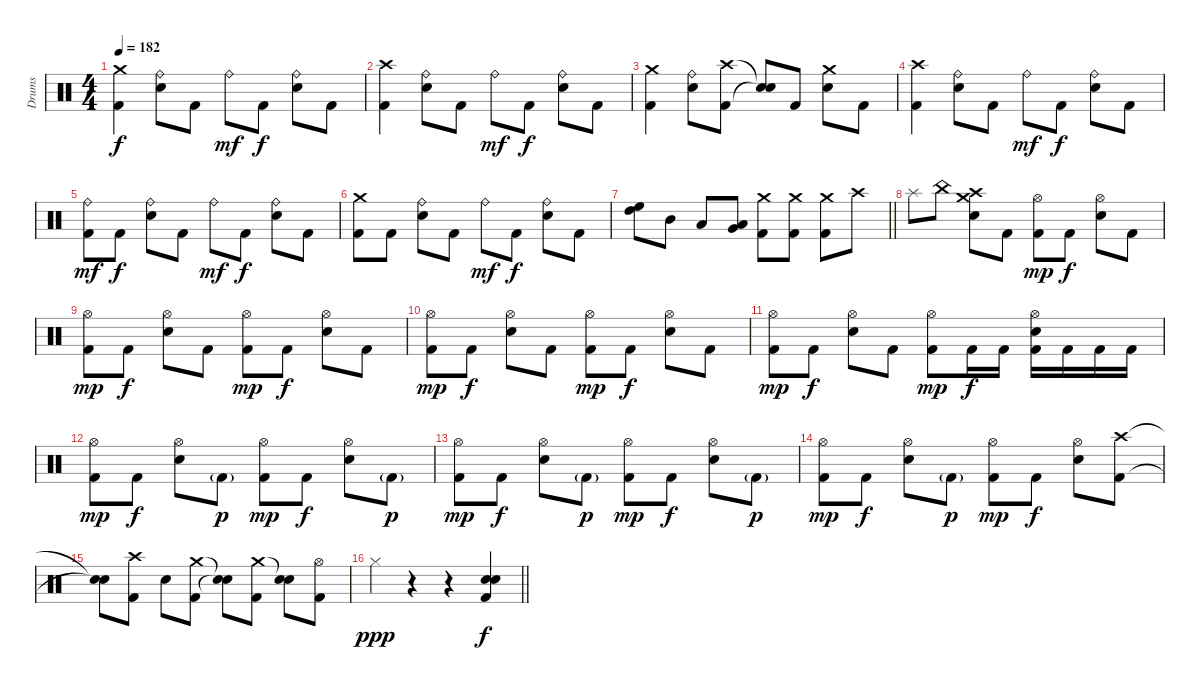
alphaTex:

\track ("Drums" "Drums") {instrument percussion}
\staff {score}
\articulation defaults
\ts (4 4)
\tempo 182
\clef neutral
\ks c
("Crash medium (hit)" "Kick (hit) 2").4{dy f} ("Ride (bell)" "Electric Snare (hit)").8 "Kick (hit) 2".8 "Ride (bell)".8{dy mf} "Kick (hit) 2".8{dy f} ("Ride (bell)" "Electric Snare (hit)").8 "Kick (hit) 2".8 |
("Crash high (hit)" "Kick (hit) 2").4 ("Ride (bell)" "Electric Snare (hit)").8 "Kick (hit) 2".8 "Ride (bell)".8{dy mf} "Kick (hit) 2".8{dy f} ("Ride (bell)" "Electric Snare (hit)").8 "Kick (hit) 2".8 |
("Crash medium (hit)" "Kick (hit) 2").4 ("Ride (bell)" "Electric Snare (hit)").8 ("Crash high (hit)" "Kick (hit) 2").8 ("Snare (hit)"{t} "Snare (hit)"{t}).8 "Kick (hit) 2".8 ("Crash medium (hit)" "Electric Snare (hit)").8 "Kick (hit) 2".8 |
("Crash high (hit)" "Kick (hit) 2").4 ("Ride (bell)" "Electric Snare (hit)").8 "Kick (hit) 2".8 "Ride (bell)".8{dy mf} "Kick (hit) 2".8{dy f} ("Ride (bell)" "Electric Snare (hit)").8 "Kick (hit) 2".8 |
("Ride (bell)" "Kick (hit) 2").8{dy mf} "Kick (hit) 2".8{dy f} ("Ride (bell)" "Electric Snare (hit)").8 "Kick (hit) 2".8 "Ride (bell)".8{dy mf} "Kick (hit) 2".8{dy f} ("Ride (bell)" "Electric Snare (hit)").8 "Kick (hit) 2".8 |
("Crash medium (hit)" "Kick (hit) 2").8 "Kick (hit) 2".8 ("Ride (bell)" "Electric Snare (hit)").8 "Kick (hit) 2".8 "Ride (bell)".8{dy mf} "Kick (hit) 2".8{dy f} ("Ride (bell)" "Electric Snare (hit)").8 "Kick (hit) 2".8 |
\barLineRight lightlight
("High Floor Tom (hit)" "High Tom (hit)").8 "Mid Tom (hit)".8 "Low Tom (hit)".8 ("Low Tom (hit)" "Very Low Tom (hit)").8 ("Crash medium (hit)" "Kick (hit) 2").8 ("Crash medium (hit)" "Kick (hit) 2").8 ("Crash medium (hit)" "Kick (hit) 2").8 "Crash high (hit)".8 |
"Splash (hit)".8 "China (hit)".8 ("Crash medium (hit)" "Crash high (hit)" "Electric Snare (hit)").8 "Kick (hit) 2".8 ("Hi-Hat (open)" "Kick (hit) 2").8{dy mp} "Kick (hit) 2".8{dy f} ("Hi-Hat (open)" "Electric Snare (hit)").8 "Kick (hit) 2".8 |
("Hi-Hat (open)" "Kick (hit) 2").8{dy mp} "Kick (hit) 2".8{dy f} ("Hi-Hat (open)" "Electric Snare (hit)").8 "Kick (hit) 2".8 ("Hi-Hat (open)" "Kick (hit) 2").8{dy mp} "Kick (hit) 2".8{dy f} ("Hi-Hat (open)" "Electric Snare (hit)").8 "Kick (hit) 2".8 |
("Hi-Hat (open)" "Kick (hit) 2").8{dy mp} "Kick (hit) 2".8{dy f} ("Hi-Hat (open)" "Electric Snare (hit)").8 "Kick (hit) 2".8 ("Hi-Hat (open)" "Kick (hit) 2").8{dy mp} "Kick (hit) 2".8{dy f} ("Hi-Hat (open)" "Electric Snare (hit)").8 "Kick (hit) 2".8 |
("Hi-Hat (open)" "Kick (hit) 2").8{dy mp} "Kick (hit) 2".8{dy f} ("Hi-Hat (open)" "Electric Snare (hit)").8 "Kick (hit) 2".8 ("Hi-Hat (open)" "Kick (hit) 2").8{dy mp} "Kick (hit) 2".16{dy f} "Kick (hit) 2".16 ("Hi-Hat (open)" "Electric Snare (hit)" "Kick (hit) 2").16 "Kick (hit) 2".16 "Kick (hit) 2".16 "Kick (hit) 2".16 |
("Hi-Hat (open)" "Kick (hit) 2").8{dy mp} "Kick (hit) 2".8{dy f} ("Hi-Hat (open)" "Electric Snare (hit)").8 "Kick (hit) 2"{g}.8{dy p} ("Hi-Hat (open)" "Kick (hit) 2").8{dy mp} "Kick (hit) 2".8{dy f} ("Hi-Hat (open)" "Electric Snare (hit)").8 "Kick (hit) 2"{g}.8{dy p} |
("Hi-Hat (open)" "Kick (hit) 2").8{dy mp} "Kick (hit) 2".8{dy f} ("Hi-Hat (open)" "Electric Snare (hit)").8 "Kick (hit) 2"{g}.8{dy p} ("Hi-Hat (open)" "Kick (hit) 2").8{dy mp} "Kick (hit) 2".8{dy f} ("Hi-Hat (open)" "Electric Snare (hit)").8 "Kick (hit) 2"{g}.8{dy p} |
("Hi-Hat (open)" "Kick (hit) 2").8{dy mp} "Kick (hit) 2".8{dy f} ("Hi-Hat (open)" "Electric Snare (hit)").8 "Kick (hit) 2"{g}.8{dy p} ("Hi-Hat (open)" "Kick (hit) 2").8{dy mp} "Kick (hit) 2".8{dy f} ("Hi-Hat (open)" "Electric Snare (hit)").8 ("Crash high (hit)" "Kick (hit) 2").8 |
("Snare (hit)"{t} "Snare (hit)"{t}).8 ("Crash high (hit)" "Kick (hit) 2").8 "Electric Snare (hit)".8 ("Crash medium (hit)" "Kick (hit) 2").8 ("Snare (hit)"{t} "Snare (hit)"{t}).8 ("Crash medium (hit)" "Kick (hit) 2").8 ("Snare (hit)"{t} "Electric Snare (hit)").8 ("Hi-Hat (open)" "Kick (hit) 2").8 |
\barLineRight lightlight "Hi-Hat (closed)".4{dy ppp}
r.4 r.4 ("Snare (hit) 2" "Electric Snare (hit)" "Kick (hit) 2").4{dy f}
